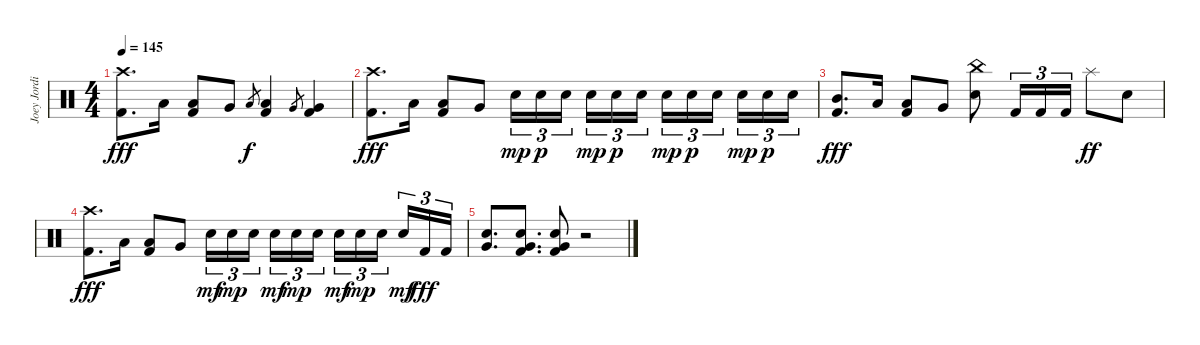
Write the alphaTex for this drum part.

\track ("Joey Jordison" "Joey Jordi") {instrument percussion}
\staff {score}
\articulation defaults
\ts (4 4)
\tempo 145
\clef neutral
\ks c
("Crash high (hit)" "Kick (hit) 2").8{d dy fff} "Low Tom (hit)".16 ("Low Floor Tom (hit)" "Kick (hit) 2").8 "Very Low Tom (hit)".8 "Low Tom (hit)".8{gr dy f} ("Low Tom (hit)" "Kick (hit) 2").4 "Very Low Tom (hit)".8{gr} ("Very Low Tom (hit)" "Kick (hit) 2").4 |
("Crash high (hit)" "Kick (hit) 2").8{d dy fff} "Low Tom (hit)".16 ("Low Floor Tom (hit)" "Kick (hit) 2").8 "Very Low Tom (hit)".8 "Electric Snare (hit)".16{tu (3 2) dy mp} "Electric Snare (hit)".16{tu (3 2) dy p} "Electric Snare (hit)".16{tu (3 2) beam splitsecondary} "Electric Snare (hit)".16{tu (3 2) dy mp} "Electric Snare (hit)".16{tu (3 2) dy p} "Electric Snare (hit)".16{tu (3 2)} "Electric Snare (hit)".16{tu (3 2) dy mp} "Electric Snare (hit)".16{tu (3 2) dy p} "Electric Snare (hit)".16{tu (3 2) beam splitsecondary} "Electric Snare (hit)".16{tu (3 2) dy mp} "Electric Snare (hit)".16{tu (3 2) dy p} "Electric Snare (hit)".16{tu (3 2)} |
("Mid Tom (hit)" "Kick (hit) 2").8{d dy fff} "Low Tom (hit)".16 ("Low Floor Tom (hit)" "Kick (hit) 2").8 "Very Low Tom (hit)".8 ("China (hit)" "Electric Snare (hit)").8 "Kick (hit) 2".16{tu (3 2)} "Kick (hit) 2".16{tu (3 2)} "Kick (hit) 2".16{tu (3 2)} "Splash (hit)".8{dy ff} "Electric Snare (hit)".8 |
("Crash high (hit)" "Kick (hit) 2").8{d dy fff} "Low Tom (hit)".16 ("Low Floor Tom (hit)" "Kick (hit) 2").8 "Very Low Tom (hit)".8 "Electric Snare (hit)".16{tu (3 2) dy mf} "Electric Snare (hit)".16{tu (3 2) dy mp} "Electric Snare (hit)".16{tu (3 2) beam splitsecondary} "Electric Snare (hit)".16{tu (3 2) dy mf} "Electric Snare (hit)".16{tu (3 2) dy mp} "Electric Snare (hit)".16{tu (3 2)} "Electric Snare (hit)".16{tu (3 2) dy mf} "Electric Snare (hit)".16{tu (3 2) dy mp} "Electric Snare (hit)".16{tu (3 2) beam splitsecondary} "Electric Snare (hit)".16{tu (3 2) dy mf} "Kick (hit) 2".16{tu (3 2) dy fff} "Kick (hit) 2".16{tu (3 2)} |
("Electric Snare (hit)" "Very Low Tom (hit)").8{d} ("Electric Snare (hit)" "Very Low Tom (hit)" "Kick (hit) 2").8{d} ("Electric Snare (hit)" "Very Low Tom (hit)" "Kick (hit) 2").8 r.2
